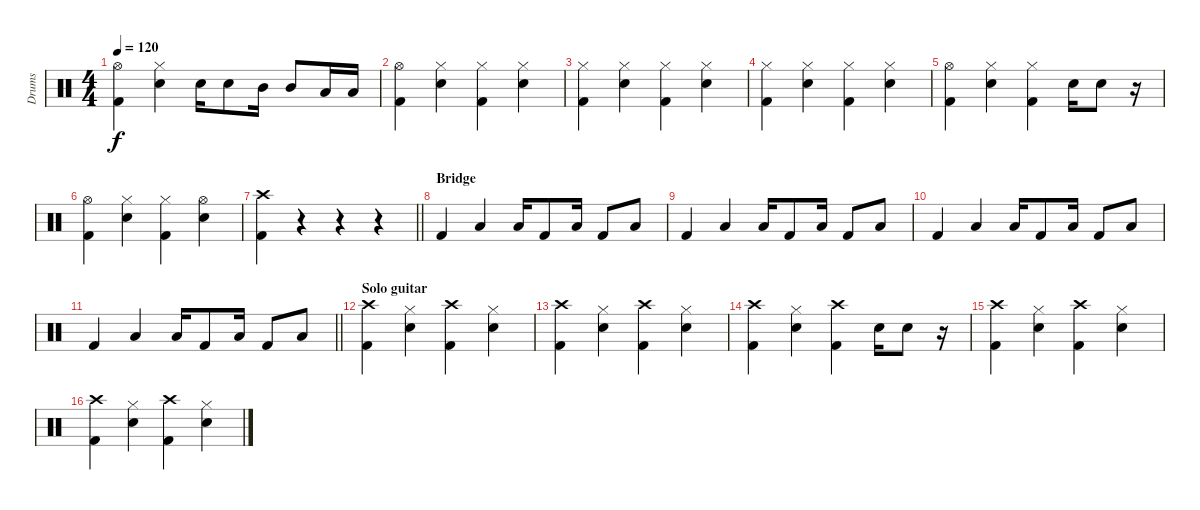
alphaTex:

\track ("Drums" "Drums") {instrument percussion}
\staff {score}
\articulation defaults
\ts (4 4)
\tempo 120
\clef neutral
\ks c
("Hi-Hat (open)" "Kick (hit) 2").4{dy f} ("Hi-Hat (closed)" "Snare (hit) 2").4 "Snare (hit) 2".16 "Snare (hit) 2".8 "Mid Tom (hit)".16 "Mid Tom (hit)".8 "Low Tom (hit)".16 "Low Tom (hit)".16 |
("Hi-Hat (open)" "Kick (hit) 2").4 ("Hi-Hat (closed)" "Snare (hit) 2").4 ("Hi-Hat (closed)" "Kick (hit) 2").4 ("Hi-Hat (closed)" "Snare (hit) 2").4 |
("Hi-Hat (closed)" "Kick (hit) 2").4 ("Hi-Hat (closed)" "Snare (hit) 2").4 ("Hi-Hat (closed)" "Kick (hit) 2").4 ("Hi-Hat (closed)" "Snare (hit) 2").4 |
("Hi-Hat (closed)" "Kick (hit) 2").4 ("Hi-Hat (closed)" "Snare (hit) 2").4 ("Hi-Hat (closed)" "Kick (hit) 2").4 ("Hi-Hat (closed)" "Snare (hit) 2").4 |
("Hi-Hat (open)" "Kick (hit) 2").4 ("Hi-Hat (closed)" "Snare (hit) 2").4 ("Hi-Hat (closed)" "Kick (hit) 2").4 "Snare (hit) 2".16 "Snare (hit) 2".8 r.16 |
("Hi-Hat (open)" "Kick (hit) 2").4 ("Hi-Hat (closed)" "Snare (hit) 2").4 ("Hi-Hat (closed)" "Kick (hit) 2").4 ("Hi-Hat (open)" "Snare (hit) 2").4 |
\barLineRight lightlight
("Crash high (hit)" "Kick (hit) 2").4 r.4 r.4 r.4 |
\section ("" "Bridge")
"Kick (hit) 2".4 "Low Floor Tom (hit)".4 "Low Floor Tom (hit)".16 "Kick (hit) 2".8 "Low Floor Tom (hit)".16 "Kick (hit) 2".8 "Low Floor Tom (hit)".8 |
"Kick (hit) 2".4 "Low Floor Tom (hit)".4 "Low Floor Tom (hit)".16 "Kick (hit) 2".8 "Low Floor Tom (hit)".16 "Kick (hit) 2".8 "Low Floor Tom (hit)".8 |
"Kick (hit) 2".4 "Low Floor Tom (hit)".4 "Low Floor Tom (hit)".16 "Kick (hit) 2".8 "Low Floor Tom (hit)".16 "Kick (hit) 2".8 "Low Floor Tom (hit)".8 |
\barLineRight lightlight "Kick (hit) 2".4 "Low Floor Tom (hit)".4 "Low Floor Tom (hit)".16 "Kick (hit) 2".8 "Low Floor Tom (hit)".16 "Kick (hit) 2".8 "Low Floor Tom (hit)".8
|
\section ("" "Solo guitar")
("Crash high (hit)" "Kick (hit) 2").4 ("Hi-Hat (closed)" "Snare (hit) 2").4 ("Crash high (hit)" "Kick (hit) 2").4 ("Hi-Hat (closed)" "Snare (hit) 2").4 |
("Crash high (hit)" "Kick (hit) 2").4 ("Hi-Hat (closed)" "Snare (hit) 2").4 ("Crash high (hit)" "Kick (hit) 2").4 ("Hi-Hat (closed)" "Snare (hit) 2").4 |
("Crash high (hit)" "Kick (hit) 2").4 ("Hi-Hat (closed)" "Snare (hit) 2").4 ("Crash high (hit)" "Kick (hit) 2").4 "Snare (hit) 2".16 "Snare (hit) 2".8 r.16 |
("Crash high (hit)" "Kick (hit) 2").4 ("Hi-Hat (closed)" "Snare (hit) 2").4 ("Crash high (hit)" "Kick (hit) 2").4 ("Hi-Hat (closed)" "Snare (hit) 2").4 |
("Crash high (hit)" "Kick (hit) 2").4 ("Hi-Hat (closed)" "Snare (hit) 2").4 ("Crash high (hit)" "Kick (hit) 2").4 ("Hi-Hat (closed)" "Snare (hit) 2").4
